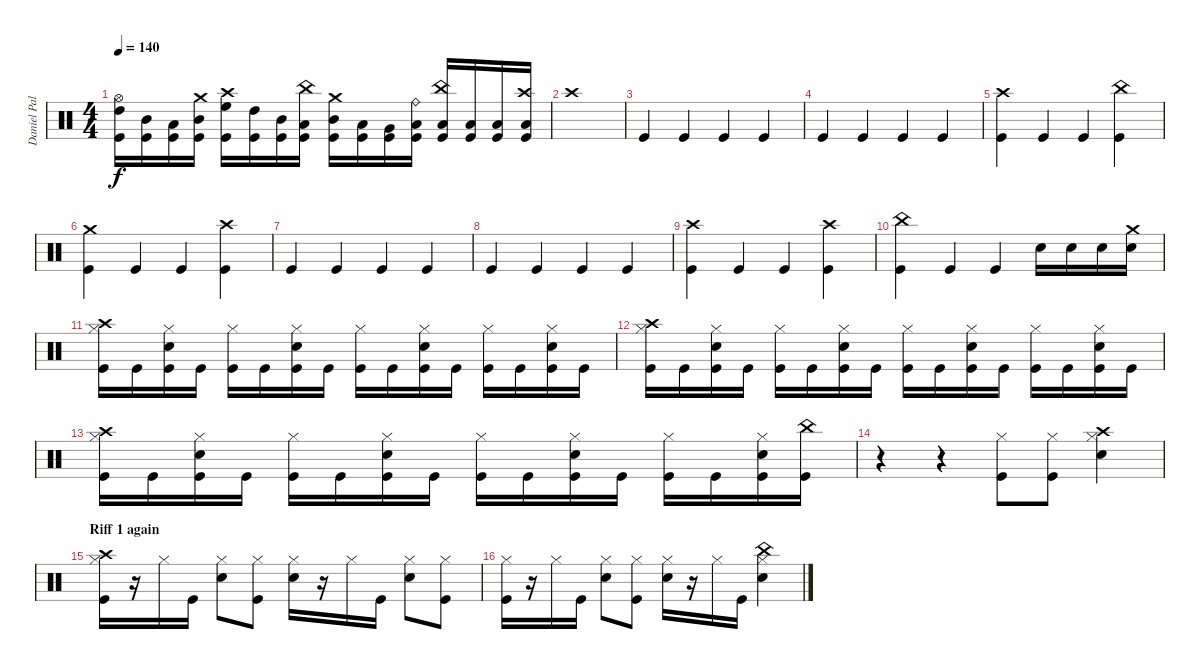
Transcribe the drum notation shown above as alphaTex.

\track ("Daniel Pal" "Daniel Pal") {instrument percussion}
\staff {score}
\articulation defaults
\ts (4 4)
\tempo 140
\clef neutral
\ks c
("Hi-Hat (open)" "High Tom (hit)" "Kick (hit)").16{dy f} ("Mid Tom (hit)" "Kick (hit)").16 ("Low Tom (hit)" "Kick (hit)").16 ("Crash medium (hit)" "Mid Tom (hit)" "Kick (hit)").16 ("Crash high (hit)" "High Floor Tom (hit)" "Kick (hit)").16 ("High Tom (hit)" "Kick (hit)").16 ("Mid Tom (hit)" "Kick (hit)").16 ("China (hit)" "Low Tom (hit)" "Kick (hit)").16 ("Crash medium (hit)" "Mid Tom (hit)" "Kick (hit)").16 ("Low Tom (hit)" "Kick (hit)").16 ("Very Low Tom (hit)" "Kick (hit)").16 ("Ride (bell)" "Low Floor Tom (hit)" "Kick (hit)").16 ("China (hit)" "Low Floor Tom (hit)" "Kick (hit)").16 ("Low Floor Tom (hit)" "Kick (hit)").16 ("Low Floor Tom (hit)" "Kick (hit)").16 ("Crash high (hit)" "Low Floor Tom (hit)" "Kick (hit)").16 |
"Crash high (hit)".1 |
"Kick (hit)".4 "Kick (hit)".4 "Kick (hit)".4 "Kick (hit)".4 |
"Kick (hit)".4 "Kick (hit)".4 "Kick (hit)".4 "Kick (hit)".4 |
("Crash high (hit)" "Kick (hit)").4 "Kick (hit)".4 "Kick (hit)".4 ("China (hit)" "Kick (hit)").4 |
("Crash medium (hit)" "Kick (hit)").4 "Kick (hit)".4 "Kick (hit)".4 ("Crash high (hit)" "Kick (hit)").4 |
"Kick (hit)".4 "Kick (hit)".4 "Kick (hit)".4 "Kick (hit)".4 |
"Kick (hit)".4 "Kick (hit)".4 "Kick (hit)".4 "Kick (hit)".4 |
("Crash high (hit)" "Kick (hit)").4 "Kick (hit)".4 "Kick (hit)".4 ("Crash high (hit)" "Kick (hit)").4 |
("China (hit)" "Kick (hit)").4 "Kick (hit)".4 "Kick (hit)".4 "Electric Snare (hit)".16 "Electric Snare (hit)".16 "Electric Snare (hit)".16 ("Crash medium (hit)" "Electric Snare (hit)").16 |
("Crash high (hit)" "Hi-Hat (closed)" "Kick (hit)").16 "Kick (hit)".16 ("Hi-Hat (closed)" "Electric Snare (hit)" "Kick (hit)").16 "Kick (hit)".16 ("Hi-Hat (closed)" "Kick (hit)").16 "Kick (hit)".16 ("Hi-Hat (closed)" "Electric Snare (hit)" "Kick (hit)").16 "Kick (hit)".16 ("Hi-Hat (closed)" "Kick (hit)").16 "Kick (hit)".16 ("Hi-Hat (closed)" "Electric Snare (hit)" "Kick (hit)").16 "Kick (hit)".16 ("Hi-Hat (closed)" "Kick (hit)").16 "Kick (hit)".16 ("Hi-Hat (closed)" "Electric Snare (hit)" "Kick (hit)").16 "Kick (hit)".16 |
("Crash high (hit)" "Hi-Hat (closed)" "Kick (hit)").16 "Kick (hit)".16 ("Hi-Hat (closed)" "Electric Snare (hit)" "Kick (hit)").16 "Kick (hit)".16 ("Hi-Hat (closed)" "Kick (hit)").16 "Kick (hit)".16 ("Hi-Hat (closed)" "Electric Snare (hit)" "Kick (hit)").16 "Kick (hit)".16 ("Hi-Hat (closed)" "Kick (hit)").16 "Kick (hit)".16 ("Hi-Hat (closed)" "Electric Snare (hit)" "Kick (hit)").16 "Kick (hit)".16 ("Hi-Hat (closed)" "Kick (hit)").16 "Kick (hit)".16 ("Hi-Hat (closed)" "Electric Snare (hit)" "Kick (hit)").16 "Kick (hit)".16 |
("Crash high (hit)" "Hi-Hat (closed)" "Kick (hit)").16 "Kick (hit)".16 ("Hi-Hat (closed)" "Electric Snare (hit)" "Kick (hit)").16 "Kick (hit)".16 ("Hi-Hat (closed)" "Kick (hit)").16 "Kick (hit)".16 ("Hi-Hat (closed)" "Electric Snare (hit)" "Kick (hit)").16 "Kick (hit)".16 ("Hi-Hat (closed)" "Kick (hit)").16 "Kick (hit)".16 ("Hi-Hat (closed)" "Electric Snare (hit)" "Kick (hit)").16 "Kick (hit)".16 ("Hi-Hat (closed)" "Kick (hit)").16 "Kick (hit)".16 ("Hi-Hat (closed)" "Electric Snare (hit)" "Kick (hit)").16 ("China (hit)" "Kick (hit)").16 |
r.4 r.4 ("Hi-Hat (closed)" "Kick (hit)").8 ("Hi-Hat (closed)" "Kick (hit)").8 ("Crash high (hit)" "Hi-Hat (closed)" "Electric Snare (hit)").4 |
\section ("" "Riff 1 again")
("Crash high (hit)" "Hi-Hat (closed)" "Kick (hit)").16 r.16 "Hi-Hat (closed)".16 "Kick (hit)".16 ("Hi-Hat (closed)" "Electric Snare (hit)").8 ("Hi-Hat (closed)" "Kick (hit)").8 ("Hi-Hat (closed)" "Electric Snare (hit)").16 r.16 "Hi-Hat (closed)".16 "Kick (hit)".16 ("Hi-Hat (closed)" "Electric Snare (hit)").8 ("Hi-Hat (closed)" "Kick (hit)").8 |
("Hi-Hat (closed)" "Kick (hit)").16 r.16 "Hi-Hat (closed)".16 "Kick (hit)".16 ("Hi-Hat (closed)" "Electric Snare (hit)").8 ("Hi-Hat (closed)" "Kick (hit)").8 ("Hi-Hat (closed)" "Electric Snare (hit)").16 r.16 "Hi-Hat (closed)".16 "Kick (hit)".16 ("China (hit)" "Hi-Hat (closed)" "Electric Snare (hit)").4
